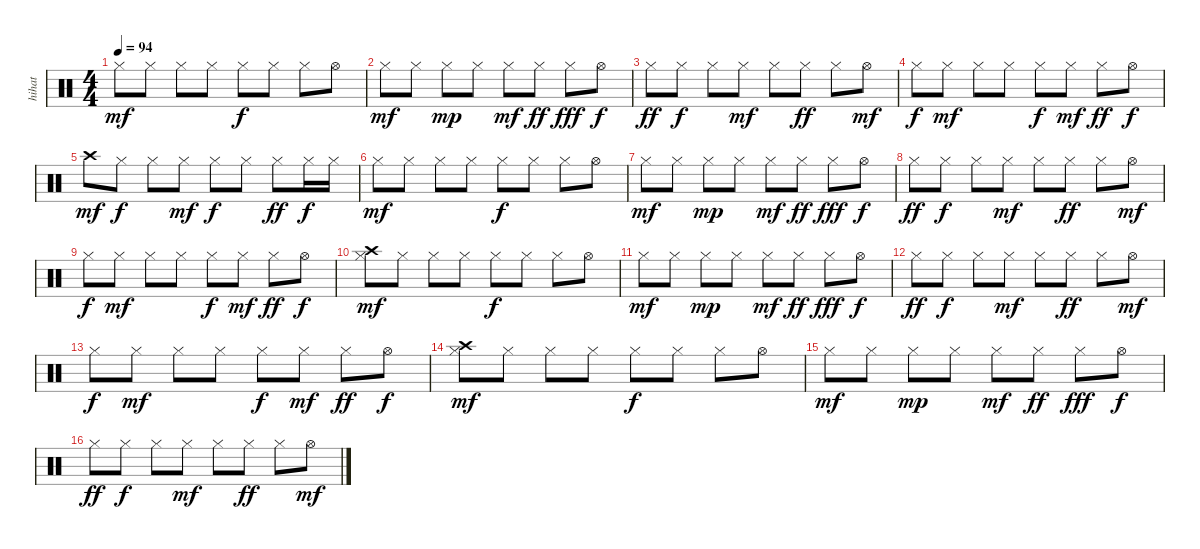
\track ("hihat" "hihat") {instrument percussion}
\staff {score}
\articulation defaults
\ts (4 4)
\tempo 94
\clef neutral
\ks c "Hi-Hat (closed)".8{dy mf} "Hi-Hat (closed)".8 "Hi-Hat (closed)".8 "Hi-Hat (closed)".8 "Hi-Hat (closed)".8{dy f} "Hi-Hat (closed)".8 "Hi-Hat (closed)".8 "Hi-Hat (open)".8
|
"Hi-Hat (closed)".8{dy mf} "Hi-Hat (closed)".8 "Hi-Hat (closed)".8{dy mp} "Hi-Hat (closed)".8 "Hi-Hat (closed)".8{dy mf} "Hi-Hat (closed)".8{dy ff} "Hi-Hat (closed)".8{dy fff} "Hi-Hat (open)".8{dy f} |
"Hi-Hat (closed)".8{dy ff} "Hi-Hat (closed)".8{dy f} "Hi-Hat (closed)".8 "Hi-Hat (closed)".8{dy mf} "Hi-Hat (closed)".8 "Hi-Hat (closed)".8{dy ff} "Hi-Hat (closed)".8 "Hi-Hat (open)".8{dy mf} |
"Hi-Hat (closed)".8{dy f} "Hi-Hat (closed)".8{dy mf} "Hi-Hat (closed)".8 "Hi-Hat (closed)".8 "Hi-Hat (closed)".8{dy f} "Hi-Hat (closed)".8{dy mf} "Hi-Hat (closed)".8{dy ff} "Hi-Hat (open)".8{dy f} |
"Crash high (hit)".8{dy mf} "Hi-Hat (closed)".8{dy f} "Hi-Hat (closed)".8 "Hi-Hat (closed)".8{dy mf} "Hi-Hat (closed)".8{dy f} "Hi-Hat (closed)".8 "Hi-Hat (closed)".8{dy ff} "Hi-Hat (closed)".16{dy f} "Hi-Hat (closed)".16 |
"Hi-Hat (closed)".8{dy mf} "Hi-Hat (closed)".8 "Hi-Hat (closed)".8 "Hi-Hat (closed)".8 "Hi-Hat (closed)".8{dy f} "Hi-Hat (closed)".8 "Hi-Hat (closed)".8 "Hi-Hat (open)".8 |
"Hi-Hat (closed)".8{dy mf} "Hi-Hat (closed)".8 "Hi-Hat (closed)".8{dy mp} "Hi-Hat (closed)".8 "Hi-Hat (closed)".8{dy mf} "Hi-Hat (closed)".8{dy ff} "Hi-Hat (closed)".8{dy fff} "Hi-Hat (open)".8{dy f} |
"Hi-Hat (closed)".8{dy ff} "Hi-Hat (closed)".8{dy f} "Hi-Hat (closed)".8 "Hi-Hat (closed)".8{dy mf} "Hi-Hat (closed)".8 "Hi-Hat (closed)".8{dy ff} "Hi-Hat (closed)".8 "Hi-Hat (open)".8{dy mf} |
"Hi-Hat (closed)".8{dy f} "Hi-Hat (closed)".8{dy mf} "Hi-Hat (closed)".8 "Hi-Hat (closed)".8 "Hi-Hat (closed)".8{dy f} "Hi-Hat (closed)".8{dy mf} "Hi-Hat (closed)".8{dy ff} "Hi-Hat (open)".8{dy f} |
("Crash high (hit)" "Hi-Hat (closed)").8{dy mf} "Hi-Hat (closed)".8 "Hi-Hat (closed)".8 "Hi-Hat (closed)".8 "Hi-Hat (closed)".8{dy f} "Hi-Hat (closed)".8 "Hi-Hat (closed)".8 "Hi-Hat (open)".8 |
"Hi-Hat (closed)".8{dy mf} "Hi-Hat (closed)".8 "Hi-Hat (closed)".8{dy mp} "Hi-Hat (closed)".8 "Hi-Hat (closed)".8{dy mf} "Hi-Hat (closed)".8{dy ff} "Hi-Hat (closed)".8{dy fff} "Hi-Hat (open)".8{dy f} |
"Hi-Hat (closed)".8{dy ff} "Hi-Hat (closed)".8{dy f} "Hi-Hat (closed)".8 "Hi-Hat (closed)".8{dy mf} "Hi-Hat (closed)".8 "Hi-Hat (closed)".8{dy ff} "Hi-Hat (closed)".8 "Hi-Hat (open)".8{dy mf} |
"Hi-Hat (closed)".8{dy f} "Hi-Hat (closed)".8{dy mf} "Hi-Hat (closed)".8 "Hi-Hat (closed)".8 "Hi-Hat (closed)".8{dy f} "Hi-Hat (closed)".8{dy mf} "Hi-Hat (closed)".8{dy ff} "Hi-Hat (open)".8{dy f} |
("Crash high (hit)" "Hi-Hat (closed)").8{dy mf} "Hi-Hat (closed)".8 "Hi-Hat (closed)".8 "Hi-Hat (closed)".8 "Hi-Hat (closed)".8{dy f} "Hi-Hat (closed)".8 "Hi-Hat (closed)".8 "Hi-Hat (open)".8 |
"Hi-Hat (closed)".8{dy mf} "Hi-Hat (closed)".8 "Hi-Hat (closed)".8{dy mp} "Hi-Hat (closed)".8 "Hi-Hat (closed)".8{dy mf} "Hi-Hat (closed)".8{dy ff} "Hi-Hat (closed)".8{dy fff} "Hi-Hat (open)".8{dy f} |
"Hi-Hat (closed)".8{dy ff} "Hi-Hat (closed)".8{dy f} "Hi-Hat (closed)".8 "Hi-Hat (closed)".8{dy mf} "Hi-Hat (closed)".8 "Hi-Hat (closed)".8{dy ff} "Hi-Hat (closed)".8 "Hi-Hat (open)".8{dy mf}
